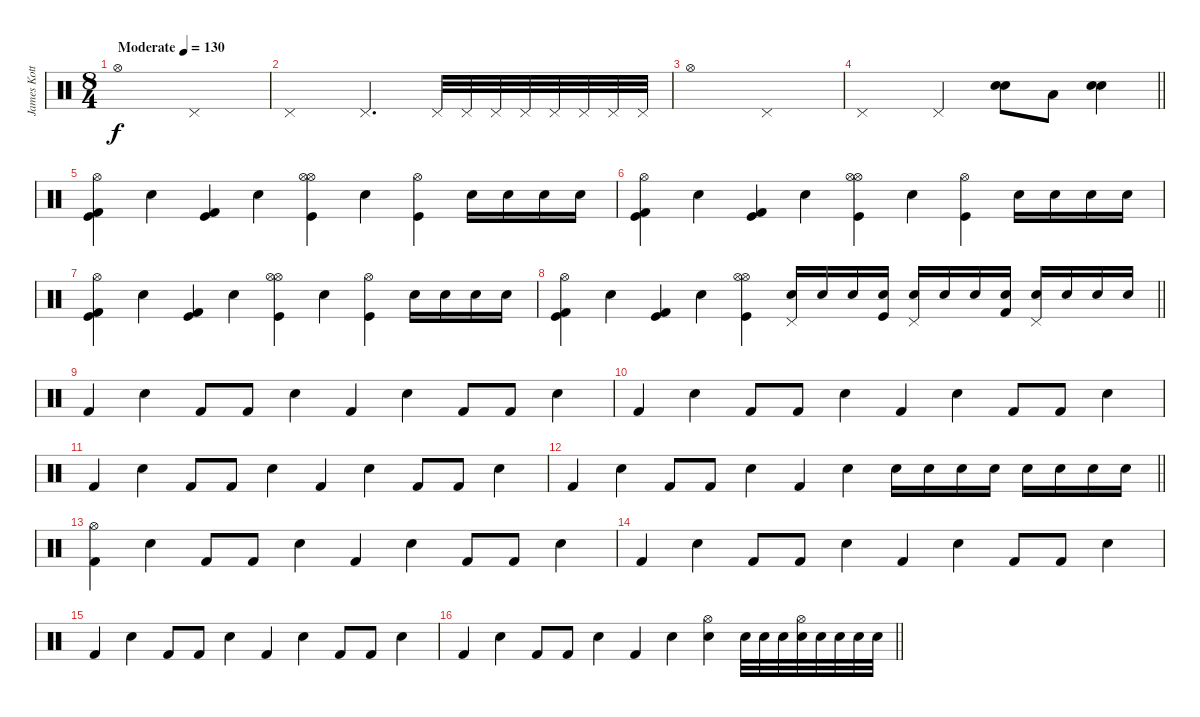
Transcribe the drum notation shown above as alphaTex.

\track ("James Kottak" "James Kott") {instrument percussion}
\staff {score}
\articulation defaults
\ts (8 4)
\section ("" "")
\tempo (130 "Moderate")
\clef neutral
\ks c "Hi-Hat (open)".1{dy f} "Pedal Hi-Hat (hit)".1
|
"Pedal Hi-Hat (hit)".1 "Pedal Hi-Hat (hit)".2{d} "Pedal Hi-Hat (hit)".32 "Pedal Hi-Hat (hit)".32 "Pedal Hi-Hat (hit)".32 "Pedal Hi-Hat (hit)".32 "Pedal Hi-Hat (hit)".32 "Pedal Hi-Hat (hit)".32 "Pedal Hi-Hat (hit)".32 "Pedal Hi-Hat (hit)".32 |
"Hi-Hat (open)".1 "Pedal Hi-Hat (hit)".1 |
\barLineRight lightlight "Pedal Hi-Hat (hit)".1 "Pedal Hi-Hat (hit)".2
("Snare (hit) 2" "Snare (hit) 2").8 "Low Tom (hit)".8 ("Snare (hit) 2" "Snare (hit) 2").4 |
\section ("" "")
("Hi-Hat (open)" "Kick (hit)" "Kick (hit) 2").4 "Snare (hit) 2".4 ("Kick (hit) 2" "Kick (hit)").4 "Snare (hit) 2".4 ("Hi-Hat (open)" "Kick (hit)" "Hi-Hat (open)").4 "Snare (hit) 2".4 ("Hi-Hat (open)" "Kick (hit)").4 "Snare (hit) 2".16 "Snare (hit) 2".16 "Snare (hit) 2".16 "Snare (hit) 2".16 |
("Hi-Hat (open)" "Kick (hit)" "Kick (hit) 2").4 "Snare (hit) 2".4 ("Kick (hit) 2" "Kick (hit)").4 "Snare (hit) 2".4 ("Hi-Hat (open)" "Kick (hit)" "Hi-Hat (open)").4 "Snare (hit) 2".4 ("Hi-Hat (open)" "Kick (hit)").4 "Snare (hit) 2".16 "Snare (hit) 2".16 "Snare (hit) 2".16 "Snare (hit) 2".16 |
("Hi-Hat (open)" "Kick (hit)" "Kick (hit) 2").4 "Snare (hit) 2".4 ("Kick (hit) 2" "Kick (hit)").4 "Snare (hit) 2".4 ("Hi-Hat (open)" "Kick (hit)" "Hi-Hat (open)").4 "Snare (hit) 2".4 ("Hi-Hat (open)" "Kick (hit)").4 "Snare (hit) 2".16 "Snare (hit) 2".16 "Snare (hit) 2".16 "Snare (hit) 2".16 |
\barLineRight lightlight
("Hi-Hat (open)" "Kick (hit)" "Kick (hit) 2").4 "Snare (hit) 2".4 ("Kick (hit) 2" "Kick (hit)").4 "Snare (hit) 2".4 ("Hi-Hat (open)" "Kick (hit)" "Hi-Hat (open)").4 ("Pedal Hi-Hat (hit)" "Snare (hit) 2").16 "Snare (hit) 2".16 "Snare (hit) 2".16 ("Snare (hit) 2" "Kick (hit)").16 ("Pedal Hi-Hat (hit)" "Snare (hit) 2").16 "Snare (hit) 2".16 "Snare (hit) 2".16 ("Snare (hit) 2" "Kick (hit) 2").16 ("Pedal Hi-Hat (hit)" "Snare (hit) 2").16 "Snare (hit) 2".16 "Snare (hit) 2".16 "Snare (hit) 2".16 |
\section ("" "")
"Kick (hit) 2".4 "Snare (hit) 2".4 "Kick (hit) 2".8 "Kick (hit) 2".8 "Snare (hit) 2".4 "Kick (hit) 2".4 "Snare (hit) 2".4 "Kick (hit) 2".8 "Kick (hit) 2".8 "Snare (hit) 2".4 |
"Kick (hit) 2".4 "Snare (hit) 2".4 "Kick (hit) 2".8 "Kick (hit) 2".8 "Snare (hit) 2".4 "Kick (hit) 2".4 "Snare (hit) 2".4 "Kick (hit) 2".8 "Kick (hit) 2".8 "Snare (hit) 2".4 |
"Kick (hit) 2".4 "Snare (hit) 2".4 "Kick (hit) 2".8 "Kick (hit) 2".8 "Snare (hit) 2".4 "Kick (hit) 2".4 "Snare (hit) 2".4 "Kick (hit) 2".8 "Kick (hit) 2".8 "Snare (hit) 2".4 |
\barLineRight lightlight "Kick (hit) 2".4 "Snare (hit) 2".4 "Kick (hit) 2".8 "Kick (hit) 2".8 "Snare (hit) 2".4 "Kick (hit) 2".4 "Snare (hit) 2".4 "Snare (hit) 2".16 "Snare (hit) 2".16 "Snare (hit) 2".16 "Snare (hit) 2".16 "Snare (hit) 2".16 "Snare (hit) 2".16 "Snare (hit) 2".16 "Snare (hit) 2".16
|
("Hi-Hat (open)" "Kick (hit) 2").4 "Snare (hit) 2".4 "Kick (hit) 2".8 "Kick (hit) 2".8 "Snare (hit) 2".4 "Kick (hit) 2".4 "Snare (hit) 2".4 "Kick (hit) 2".8 "Kick (hit) 2".8 "Snare (hit) 2".4 |
"Kick (hit) 2".4 "Snare (hit) 2".4 "Kick (hit) 2".8 "Kick (hit) 2".8 "Snare (hit) 2".4 "Kick (hit) 2".4 "Snare (hit) 2".4 "Kick (hit) 2".8 "Kick (hit) 2".8 "Snare (hit) 2".4 |
"Kick (hit) 2".4 "Snare (hit) 2".4 "Kick (hit) 2".8 "Kick (hit) 2".8 "Snare (hit) 2".4 "Kick (hit) 2".4 "Snare (hit) 2".4 "Kick (hit) 2".8 "Kick (hit) 2".8 "Snare (hit) 2".4 |
\barLineRight lightlight "Kick (hit) 2".4 "Snare (hit) 2".4 "Kick (hit) 2".8 "Kick (hit) 2".8 "Snare (hit) 2".4 "Kick (hit) 2".4 "Snare (hit) 2".4
("Hi-Hat (open)" "Snare (hit) 2").4 "Snare (hit) 2".32 "Snare (hit) 2".32 "Snare (hit) 2".32 ("Hi-Hat (open)" "Snare (hit) 2").32 "Snare (hit) 2".32 "Snare (hit) 2".32 "Snare (hit) 2".32 "Snare (hit) 2".32
